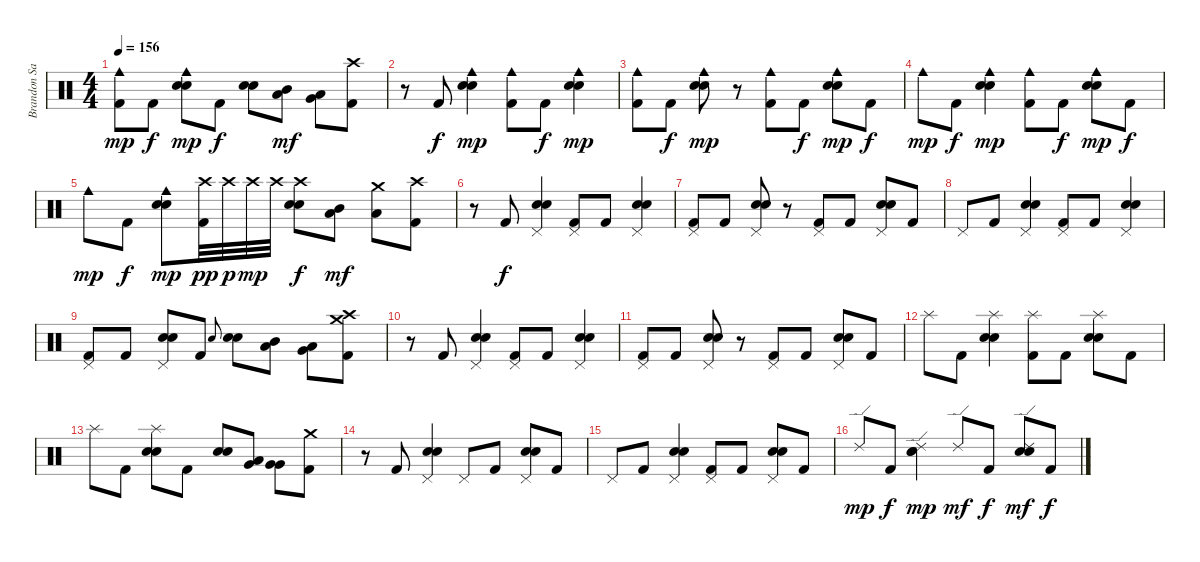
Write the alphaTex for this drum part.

\track ("Brandon Saller" "Brandon Sa") {instrument percussion}
\staff {score}
\articulation defaults
\ts (4 4)
\tempo 156
\clef neutral
\ks c
("Cowbell medium (hit)" "Kick (hit) 2").8{dy mp} "Kick (hit) 2".8{dy f} ("Cowbell medium (hit)" "Snare (hit) 2" "Electric Snare (hit)").8{dy mp} "Kick (hit) 2".8{dy f} ("Snare (hit) 2" "Electric Snare (hit)").8 ("Mid Tom (hit)" "Low Tom (hit)").8{dy mf} ("Low Tom (hit)" "Very Low Tom (hit)").8 ("Crash high (hit)" "Kick (hit) 2").8 |
r.8 "Kick (hit) 2".8{dy f} ("Cowbell medium (hit)" "Snare (hit) 2" "Electric Snare (hit)").4{dy mp} ("Cowbell medium (hit)" "Kick (hit) 2").8 "Kick (hit) 2".8{dy f} ("Cowbell medium (hit)" "Snare (hit) 2" "Electric Snare (hit)").4{dy mp} |
("Cowbell medium (hit)" "Kick (hit) 2").8 "Kick (hit) 2".8{dy f} ("Cowbell medium (hit)" "Snare (hit) 2" "Electric Snare (hit)").8{dy mp} r.8 ("Cowbell medium (hit)" "Kick (hit) 2").8 "Kick (hit) 2".8{dy f} ("Cowbell medium (hit)" "Snare (hit) 2" "Electric Snare (hit)").8{dy mp} "Kick (hit) 2".8{dy f} |
"Cowbell medium (hit)".8{dy mp} "Kick (hit) 2".8{dy f} ("Cowbell medium (hit)" "Snare (hit) 2" "Electric Snare (hit)").4{dy mp} ("Cowbell medium (hit)" "Kick (hit) 2").8 "Kick (hit) 2".8{dy f} ("Cowbell medium (hit)" "Snare (hit) 2" "Electric Snare (hit)").8{dy mp} "Kick (hit) 2".8{dy f} |
"Cowbell medium (hit)".8{dy mp} "Kick (hit) 2".8{dy f} ("Cowbell medium (hit)" "Snare (hit) 2" "Electric Snare (hit)").8{dy mp} ("Crash high (hit)" "Kick (hit) 2").32{dy pp} "Crash high (hit)".32{dy p} "Crash high (hit)".32{dy mp} "Crash high (hit)".32 ("Crash high (hit)" "Snare (hit) 2" "Electric Snare (hit)").8{dy f} ("Mid Tom (hit)" "Low Tom (hit)").8{dy mf} ("Crash medium (hit)" "Low Tom (hit)").8 ("Crash high (hit)" "Kick (hit) 2").8 |
r.8 "Kick (hit) 2".8{dy f} ("Pedal Hi-Hat (hit)" "Snare (hit) 2" "Electric Snare (hit)").4 ("Pedal Hi-Hat (hit)" "Kick (hit) 2").8 "Kick (hit) 2".8 ("Pedal Hi-Hat (hit)" "Snare (hit) 2" "Electric Snare (hit)").4 |
("Pedal Hi-Hat (hit)" "Kick (hit) 2").8 "Kick (hit) 2".8 ("Pedal Hi-Hat (hit)" "Snare (hit) 2" "Electric Snare (hit)").8 r.8 ("Pedal Hi-Hat (hit)" "Kick (hit) 2").8 "Kick (hit) 2".8 ("Pedal Hi-Hat (hit)" "Snare (hit) 2" "Electric Snare (hit)").8 "Kick (hit) 2".8 |
"Pedal Hi-Hat (hit)".8 "Kick (hit) 2".8 ("Pedal Hi-Hat (hit)" "Snare (hit) 2" "Electric Snare (hit)").4 ("Pedal Hi-Hat (hit)" "Kick (hit) 2").8 "Kick (hit) 2".8 ("Pedal Hi-Hat (hit)" "Snare (hit) 2" "Electric Snare (hit)").4 |
("Pedal Hi-Hat (hit)" "Kick (hit) 2").8 "Kick (hit) 2".8 ("Pedal Hi-Hat (hit)" "Snare (hit) 2" "Electric Snare (hit)").8 "Kick (hit) 2".8 "Electric Snare (hit)".8{gr onbeat} ("Snare (hit) 2" "Electric Snare (hit)").8 ("Mid Tom (hit)" "Low Tom (hit)").8 ("Low Tom (hit)" "Very Low Tom (hit)").8 ("Crash high (hit)" "Crash medium (hit)" "Kick (hit) 2").8 |
r.8 "Kick (hit) 2".8 ("Pedal Hi-Hat (hit)" "Snare (hit) 2" "Electric Snare (hit)").4 ("Pedal Hi-Hat (hit)" "Kick (hit) 2").8 "Kick (hit) 2".8 ("Pedal Hi-Hat (hit)" "Snare (hit) 2" "Electric Snare (hit)").4 |
("Pedal Hi-Hat (hit)" "Kick (hit) 2").8 "Kick (hit) 2".8 ("Pedal Hi-Hat (hit)" "Snare (hit) 2" "Electric Snare (hit)").8 r.8 ("Pedal Hi-Hat (hit)" "Kick (hit) 2").8 "Kick (hit) 2".8 ("Pedal Hi-Hat (hit)" "Snare (hit) 2" "Electric Snare (hit)").8 "Kick (hit) 2".8 |
"Splash (hit)".8 "Kick (hit) 2".8 ("Splash (hit)" "Snare (hit) 2" "Electric Snare (hit)").4 ("Splash (hit)" "Kick (hit) 2").8 "Kick (hit) 2".8 ("Splash (hit)" "Snare (hit) 2" "Electric Snare (hit)").8 "Kick (hit) 2".8 |
"Splash (hit)".8 "Kick (hit) 2".8 ("Splash (hit)" "Snare (hit) 2" "Electric Snare (hit)").8 "Kick (hit) 2".8 ("Snare (hit) 2" "Electric Snare (hit)").8 ("Low Tom (hit)" "Very Low Tom (hit)").8 ("Very Low Tom (hit)" "Very Low Tom (hit)").8 ("Crash medium (hit)" "Kick (hit) 2").8 |
r.8 "Kick (hit) 2".8 ("Pedal Hi-Hat (hit)" "Snare (hit) 2" "Electric Snare (hit)").4 "Pedal Hi-Hat (hit)".8 "Kick (hit) 2".8 ("Pedal Hi-Hat (hit)" "Snare (hit) 2" "Electric Snare (hit)").8 "Kick (hit) 2".8 |
"Pedal Hi-Hat (hit)".8 "Kick (hit) 2".8 ("Pedal Hi-Hat (hit)" "Snare (hit) 2" "Electric Snare (hit)").4 ("Pedal Hi-Hat (hit)" "Kick (hit) 2").8 "Kick (hit) 2".8 ("Pedal Hi-Hat (hit)" "Snare (hit) 2" "Electric Snare (hit)").8 "Kick (hit) 2".8 |
"Ride (edge) 2".8{dy mp} "Kick (hit) 2".8{dy f} ("Ride (edge) 2" "Snare (hit) 2" "Electric Snare (hit)").4{dy mp} "Ride (edge) 2".8{dy mf} "Kick (hit) 2".8{dy f} ("Ride (edge) 2" "Snare (hit) 2" "Electric Snare (hit)").8{dy mf} "Kick (hit) 2".8{dy f}
